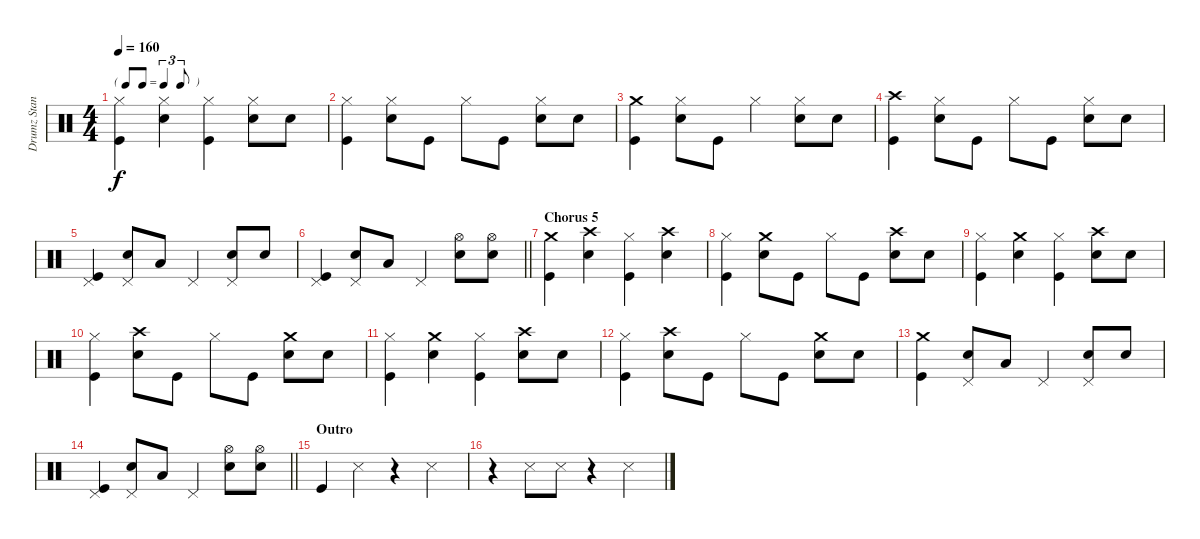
\track ("Drumz Standard" "Drumz Stan") {instrument percussion}
\staff {score}
\articulation defaults
\ts (4 4)
\tf triplet8th
\tempo 160
\clef neutral
\ks c
("Hi-Hat (closed)" "Kick (hit)").4{dy f} ("Hi-Hat (closed)" "Electric Snare (hit)").4 ("Hi-Hat (closed)" "Kick (hit)").4 ("Hi-Hat (closed)" "Electric Snare (hit)").8 "Electric Snare (hit)".8 |
("Hi-Hat (closed)" "Kick (hit)").4 ("Hi-Hat (closed)" "Electric Snare (hit)").8 "Kick (hit)".8 "Hi-Hat (closed)".8 "Kick (hit)".8 ("Hi-Hat (closed)" "Electric Snare (hit)").8 "Electric Snare (hit)".8 |
("Crash medium (hit)" "Kick (hit)").4 ("Hi-Hat (closed)" "Electric Snare (hit)").8 "Kick (hit)".8 "Hi-Hat (closed)".4 ("Hi-Hat (closed)" "Electric Snare (hit)").8 "Electric Snare (hit)".8 |
("Crash high (hit)" "Kick (hit)").4 ("Hi-Hat (closed)" "Electric Snare (hit)").8 "Kick (hit)".8 "Hi-Hat (closed)".8 "Kick (hit)".8 ("Hi-Hat (closed)" "Electric Snare (hit)").8 "Electric Snare (hit)".8 |
("Pedal Hi-Hat (hit)" "Kick (hit)").4 ("Pedal Hi-Hat (hit)" "Electric Snare (hit)").8 "Low Tom (hit)".8 "Pedal Hi-Hat (hit)".4 ("Pedal Hi-Hat (hit)" "Electric Snare (hit)").8 "Electric Snare (hit)".8 |
\barLineRight lightlight
("Pedal Hi-Hat (hit)" "Kick (hit)").4 ("Pedal Hi-Hat (hit)" "Electric Snare (hit)").8 "Low Tom (hit)".8 "Pedal Hi-Hat (hit)".4 ("Hi-Hat (open)" "Electric Snare (hit)").8 ("Hi-Hat (open)" "Electric Snare (hit)").8 |
\section ("" "Chorus 5")
("Crash medium (hit)" "Kick (hit)").4 ("Crash high (hit)" "Electric Snare (hit)").4 ("Hi-Hat (closed)" "Kick (hit)").4 ("Crash high (hit)" "Electric Snare (hit)").4 |
("Hi-Hat (closed)" "Kick (hit)").4 ("Crash medium (hit)" "Electric Snare (hit)").8 "Kick (hit)".8 "Hi-Hat (closed)".8 "Kick (hit)".8 ("Crash high (hit)" "Electric Snare (hit)").8 "Electric Snare (hit)".8 |
("Hi-Hat (closed)" "Kick (hit)").4 ("Crash medium (hit)" "Electric Snare (hit)").4 ("Hi-Hat (closed)" "Kick (hit)").4 ("Crash high (hit)" "Electric Snare (hit)").8 "Electric Snare (hit)".8 |
("Hi-Hat (closed)" "Kick (hit)").4 ("Crash high (hit)" "Electric Snare (hit)").8 "Kick (hit)".8 "Hi-Hat (closed)".8 "Kick (hit)".8 ("Crash medium (hit)" "Electric Snare (hit)").8 "Electric Snare (hit)".8 |
("Hi-Hat (closed)" "Kick (hit)").4 ("Crash medium (hit)" "Electric Snare (hit)").4 ("Hi-Hat (closed)" "Kick (hit)").4 ("Crash high (hit)" "Electric Snare (hit)").8 "Electric Snare (hit)".8 |
("Hi-Hat (closed)" "Kick (hit)").4 ("Crash high (hit)" "Electric Snare (hit)").8 "Kick (hit)".8 "Hi-Hat (closed)".8 "Kick (hit)".8 ("Crash medium (hit)" "Electric Snare (hit)").8 "Electric Snare (hit)".8 |
("Crash medium (hit)" "Kick (hit)").4 ("Pedal Hi-Hat (hit)" "Electric Snare (hit)").8 "Low Tom (hit)".8 "Pedal Hi-Hat (hit)".4 ("Pedal Hi-Hat (hit)" "Electric Snare (hit)").8 "Electric Snare (hit)".8 |
\barLineRight lightlight
("Pedal Hi-Hat (hit)" "Kick (hit)").4 ("Pedal Hi-Hat (hit)" "Electric Snare (hit)").8 "Low Tom (hit)".8 "Pedal Hi-Hat (hit)".4 ("Hi-Hat (open)" "Electric Snare (hit)").8 ("Hi-Hat (open)" "Electric Snare (hit)").8 |
\section ("" "Outro")
"Kick (hit)".4 "Snare (side stick) 3".4 r.4 "Snare (side stick) 3".4 |
r.4 "Snare (side stick) 3".8 "Snare (side stick) 3".8 r.4 "Snare (side stick) 3".4
